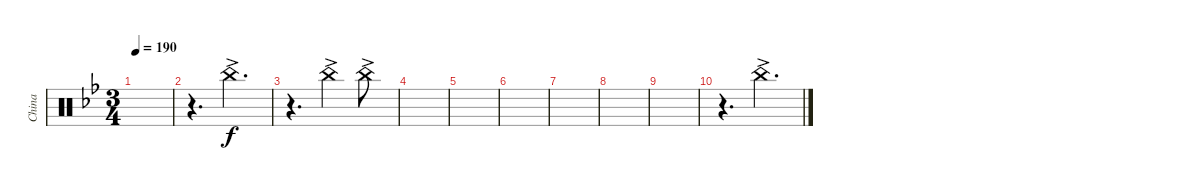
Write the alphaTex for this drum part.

\track ("China" "China") {instrument percussion}
\staff {score}
\articulation defaults
\ts (3 4)
\tempo 190
\clef neutral
\ks bb
|
r.4{d} "China (hit)"{ac}.4{d} |
r.4{d} "China (hit)"{ac}.4 "China (hit)"{ac}.8 |
|
|
|
|
|
|
r.4{d} "China (hit)"{ac}.4{d}
